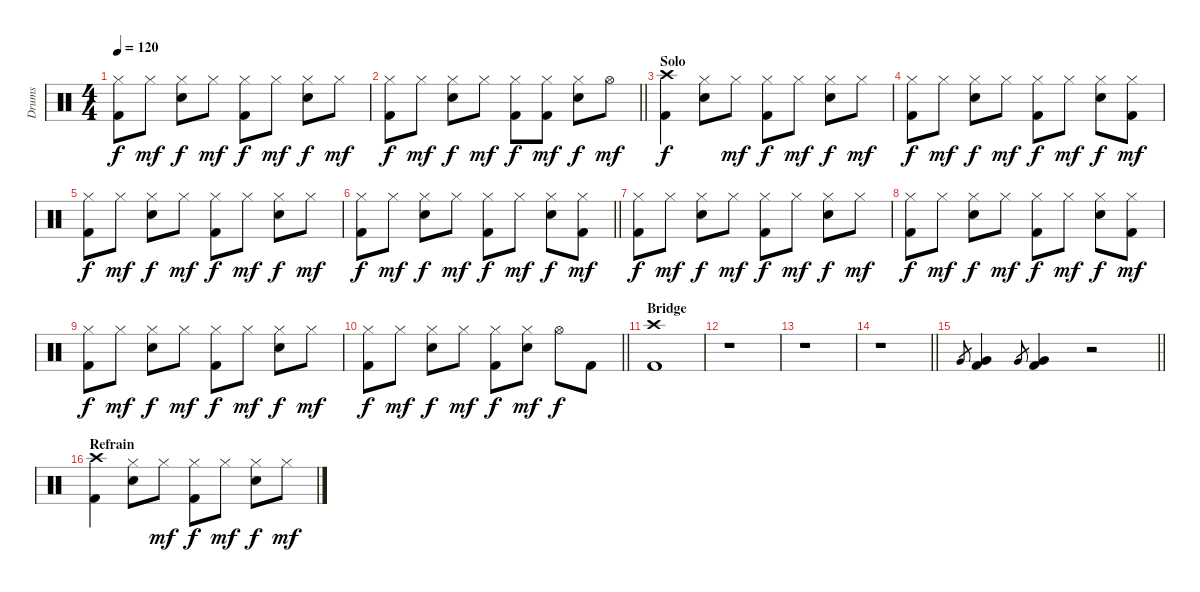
\track ("Drums" "Drums") {instrument percussion}
\staff {score}
\articulation defaults
\ts (4 4)
\tempo 120
\clef neutral
\ks c
("Hi-Hat (closed)" "Kick (hit) 2").8{dy f} "Hi-Hat (closed)".8{dy mf} ("Hi-Hat (closed)" "Snare (hit) 2").8{dy f} "Hi-Hat (closed)".8{dy mf} ("Hi-Hat (closed)" "Kick (hit) 2").8{dy f} "Hi-Hat (closed)".8{dy mf} ("Hi-Hat (closed)" "Snare (hit) 2").8{dy f} "Hi-Hat (closed)".8{dy mf} |
\barLineRight lightlight
("Hi-Hat (closed)" "Kick (hit) 2").8{dy f} "Hi-Hat (closed)".8{dy mf} ("Hi-Hat (closed)" "Snare (hit) 2").8{dy f} "Hi-Hat (closed)".8{dy mf} ("Hi-Hat (closed)" "Kick (hit) 2").8{dy f} ("Hi-Hat (closed)" "Kick (hit) 2").8{dy mf} ("Hi-Hat (closed)" "Snare (hit) 2").8{dy f} "Hi-Hat (open)".8{dy mf} |
\section ("" "Solo")
("Crash high (hit)" "Kick (hit) 2").4{dy f} ("Hi-Hat (closed)" "Snare (hit) 2").8 "Hi-Hat (closed)".8{dy mf} ("Hi-Hat (closed)" "Kick (hit) 2").8{dy f} "Hi-Hat (closed)".8{dy mf} ("Hi-Hat (closed)" "Snare (hit) 2").8{dy f} "Hi-Hat (closed)".8{dy mf} |
("Hi-Hat (closed)" "Kick (hit) 2").8{dy f} "Hi-Hat (closed)".8{dy mf} ("Hi-Hat (closed)" "Snare (hit) 2").8{dy f} "Hi-Hat (closed)".8{dy mf} ("Hi-Hat (closed)" "Kick (hit) 2").8{dy f} "Hi-Hat (closed)".8{dy mf} ("Hi-Hat (closed)" "Snare (hit) 2").8{dy f} ("Hi-Hat (closed)" "Kick (hit) 2").8{dy mf} |
("Hi-Hat (closed)" "Kick (hit) 2").8{dy f} "Hi-Hat (closed)".8{dy mf} ("Hi-Hat (closed)" "Snare (hit) 2").8{dy f} "Hi-Hat (closed)".8{dy mf} ("Hi-Hat (closed)" "Kick (hit) 2").8{dy f} "Hi-Hat (closed)".8{dy mf} ("Hi-Hat (closed)" "Snare (hit) 2").8{dy f} "Hi-Hat (closed)".8{dy mf} |
\barLineRight lightlight
("Hi-Hat (closed)" "Kick (hit) 2").8{dy f} "Hi-Hat (closed)".8{dy mf} ("Hi-Hat (closed)" "Snare (hit) 2").8{dy f} "Hi-Hat (closed)".8{dy mf} ("Hi-Hat (closed)" "Kick (hit) 2").8{dy f} "Hi-Hat (closed)".8{dy mf} ("Hi-Hat (closed)" "Snare (hit) 2").8{dy f} ("Hi-Hat (closed)" "Kick (hit) 2").8{dy mf} |
("Hi-Hat (closed)" "Kick (hit) 2").8{dy f} "Hi-Hat (closed)".8{dy mf} ("Hi-Hat (closed)" "Snare (hit) 2").8{dy f} "Hi-Hat (closed)".8{dy mf} ("Hi-Hat (closed)" "Kick (hit) 2").8{dy f} "Hi-Hat (closed)".8{dy mf} ("Hi-Hat (closed)" "Snare (hit) 2").8{dy f} "Hi-Hat (closed)".8{dy mf} |
("Hi-Hat (closed)" "Kick (hit) 2").8{dy f} "Hi-Hat (closed)".8{dy mf} ("Hi-Hat (closed)" "Snare (hit) 2").8{dy f} "Hi-Hat (closed)".8{dy mf} ("Hi-Hat (closed)" "Kick (hit) 2").8{dy f} "Hi-Hat (closed)".8{dy mf} ("Hi-Hat (closed)" "Snare (hit) 2").8{dy f} ("Hi-Hat (closed)" "Kick (hit) 2").8{dy mf} |
("Hi-Hat (closed)" "Kick (hit) 2").8{dy f} "Hi-Hat (closed)".8{dy mf} ("Hi-Hat (closed)" "Snare (hit) 2").8{dy f} "Hi-Hat (closed)".8{dy mf} ("Hi-Hat (closed)" "Kick (hit) 2").8{dy f} "Hi-Hat (closed)".8{dy mf} ("Hi-Hat (closed)" "Snare (hit) 2").8{dy f} "Hi-Hat (closed)".8{dy mf} |
\barLineRight lightlight
("Hi-Hat (closed)" "Kick (hit) 2").8{dy f} "Hi-Hat (closed)".8{dy mf} ("Hi-Hat (closed)" "Snare (hit) 2").8{dy f} "Hi-Hat (closed)".8{dy mf} ("Hi-Hat (closed)" "Kick (hit) 2").8{dy f} ("Hi-Hat (closed)" "Snare (hit) 2").8{dy mf} "Hi-Hat (open)".8{dy f} "Kick (hit) 2".8 |
\section ("" "Bridge")
("Crash high (hit)" "Kick (hit) 2").1 |
r.1 |
r.1 |
\barLineRight lightlight
r.1 |
\barLineRight lightlight "Very Low Tom (hit)".8{gr}
("Very Low Tom (hit)" "Kick (hit) 2").4 "Very Low Tom (hit)".8{gr} ("Very Low Tom (hit)" "Kick (hit) 2").4 r.2 |
\section ("" "Refrain")
("Crash high (hit)" "Kick (hit) 2").4 ("Hi-Hat (closed)" "Snare (hit) 2").8 "Hi-Hat (closed)".8{dy mf} ("Hi-Hat (closed)" "Kick (hit) 2").8{dy f} "Hi-Hat (closed)".8{dy mf} ("Hi-Hat (closed)" "Snare (hit) 2").8{dy f} "Hi-Hat (closed)".8{dy mf}
